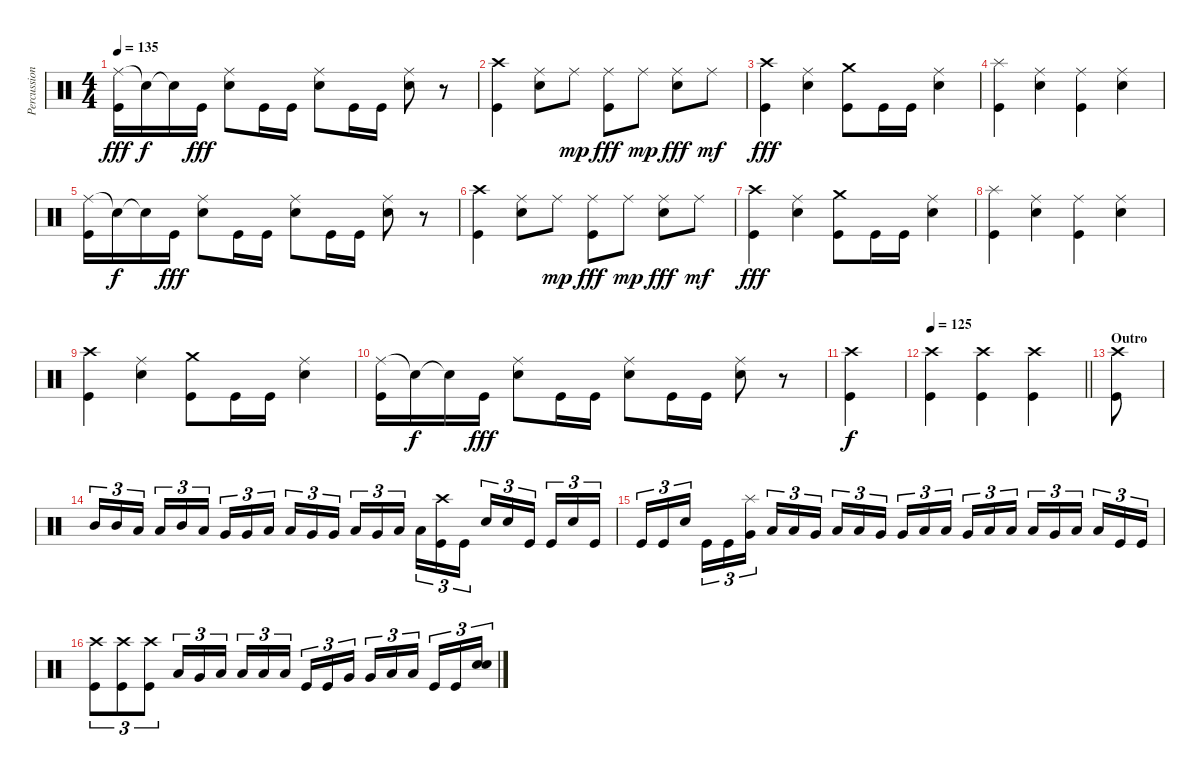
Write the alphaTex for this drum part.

\track ("Percussion/Nicko McBrain" "Percussion") {instrument percussion}
\staff {score}
\articulation defaults
\ts (4 4)
\tempo 135
\clef neutral
\ks c
("Ride (middle)" "Kick (hit)").16{dy fff} "Snare (hit)"{t}.16{dy f} "Snare (hit)"{t}.16 "Kick (hit)".16{dy fff} ("Ride (middle)" "Electric Snare (hit)").8 "Kick (hit)".16 "Kick (hit)".16 ("Ride (middle)" "Electric Snare (hit)").8 "Kick (hit)".16 "Kick (hit)".16 ("Ride (middle)" "Electric Snare (hit)").8 r.8 |
("Crash high (hit)" "Kick (hit)").4 ("Ride (middle)" "Electric Snare (hit)").8 "Ride (middle)".8{dy mp} ("Ride (middle)" "Kick (hit)").8{dy fff} "Ride (middle)".8{dy mp} ("Ride (middle)" "Electric Snare (hit)").8{dy fff} "Ride (middle)".8{dy mf} |
("Crash high (hit)" "Kick (hit)").4{dy fff} ("Ride (middle)" "Electric Snare (hit)").4 ("Crash medium (hit)" "Kick (hit)").8 "Kick (hit)".16 "Kick (hit)".16 ("Ride (middle)" "Electric Snare (hit)").4 |
("Splash (hit)" "Kick (hit)").4 ("Ride (middle)" "Electric Snare (hit)").4 ("Ride (middle)" "Kick (hit)").4 ("Ride (middle)" "Electric Snare (hit)").4 |
("Ride (middle)" "Kick (hit)").16 "Snare (hit)"{t}.16{dy f} "Snare (hit)"{t}.16 "Kick (hit)".16{dy fff} ("Ride (middle)" "Electric Snare (hit)").8 "Kick (hit)".16 "Kick (hit)".16 ("Ride (middle)" "Electric Snare (hit)").8 "Kick (hit)".16 "Kick (hit)".16 ("Ride (middle)" "Electric Snare (hit)").8 r.8 |
("Crash high (hit)" "Kick (hit)").4 ("Ride (middle)" "Electric Snare (hit)").8 "Ride (middle)".8{dy mp} ("Ride (middle)" "Kick (hit)").8{dy fff} "Ride (middle)".8{dy mp} ("Ride (middle)" "Electric Snare (hit)").8{dy fff} "Ride (middle)".8{dy mf} |
("Crash high (hit)" "Kick (hit)").4{dy fff} ("Ride (middle)" "Electric Snare (hit)").4 ("Crash medium (hit)" "Kick (hit)").8 "Kick (hit)".16 "Kick (hit)".16 ("Ride (middle)" "Electric Snare (hit)").4 |
("Splash (hit)" "Kick (hit)").4 ("Ride (middle)" "Electric Snare (hit)").4 ("Ride (middle)" "Kick (hit)").4 ("Ride (middle)" "Electric Snare (hit)").4 |
("Crash high (hit)" "Kick (hit)").4 ("Ride (middle)" "Electric Snare (hit)").4 ("Crash medium (hit)" "Kick (hit)").8 "Kick (hit)".16 "Kick (hit)".16 ("Ride (middle)" "Electric Snare (hit)").4 |
("Ride (middle)" "Kick (hit)").16 "Snare (hit)"{t}.16{dy f} "Snare (hit)"{t}.16 "Kick (hit)".16{dy fff} ("Ride (middle)" "Electric Snare (hit)").8 "Kick (hit)".16 "Kick (hit)".16 ("Ride (middle)" "Electric Snare (hit)").8 "Kick (hit)".16 "Kick (hit)".16 ("Ride (middle)" "Electric Snare (hit)").8 r.8 |
("Crash high (hit)" "Kick (hit)").4{dy f} |
\tempo 125
\barLineRight lightlight
("Crash high (hit)" "Kick (hit)").4 ("Crash high (hit)" "Kick (hit)").4 ("Crash high (hit)" "Kick (hit)").4 |
\section ("" "Outro")
("Crash high (hit)" "Kick (hit)").8 |
"Mid Tom (hit)".16{tu (3 2)} "Mid Tom (hit)".16{tu (3 2)} "Low Tom (hit)".16{tu (3 2) beam splitsecondary} "Low Tom (hit)".16{tu (3 2)} "Mid Tom (hit)".16{tu (3 2)} "Low Tom (hit)".16{tu (3 2)} "Very Low Tom (hit)".16{tu (3 2)} "Very Low Tom (hit)".16{tu (3 2)} "Low Tom (hit)".16{tu (3 2) beam splitsecondary} "Low Tom (hit)".16{tu (3 2)} "Very Low Tom (hit)".16{tu (3 2)} "Very Low Tom (hit)".16{tu (3 2)} "Low Tom (hit)".16{tu (3 2)} "Very Low Tom (hit)".16{tu (3 2)} "Low Floor Tom (hit)".16{tu (3 2) beam splitsecondary} "Low Floor Tom (hit)".16{tu (3 2)} ("Crash high (hit)" "Kick (hit)").16{tu (3 2)} "Kick (hit)".16{tu (3 2)} "Electric Snare (hit)".16{tu (3 2)} "Electric Snare (hit)".16{tu (3 2)} "Kick (hit)".16{tu (3 2) beam splitsecondary} "Kick (hit)".16{tu (3 2)} "Electric Snare (hit)".16{tu (3 2)} "Kick (hit)".16{tu (3 2)} |
"Kick (hit)".16{tu (3 2)} "Kick (hit)".16{tu (3 2)} "Electric Snare (hit)".16{tu (3 2) beam splitsecondary} "Kick (hit)".16{tu (3 2)} "Kick (hit)".16{tu (3 2)} ("Splash (hit)" "Very Low Tom (hit)").16{tu (3 2)} "Low Floor Tom (hit)".16{tu (3 2)} "Low Floor Tom (hit)".16{tu (3 2)} "Very Low Tom (hit)".16{tu (3 2) beam splitsecondary} "Low Floor Tom (hit)".16{tu (3 2)} "Low Floor Tom (hit)".16{tu (3 2)} "Very Low Tom (hit)".16{tu (3 2)} "Very Low Tom (hit)".16{tu (3 2)} "Low Floor Tom (hit)".16{tu (3 2)} "Low Floor Tom (hit)".16{tu (3 2) beam splitsecondary} "Very Low Tom (hit)".16{tu (3 2)} "Low Floor Tom (hit)".16{tu (3 2)} "Low Floor Tom (hit)".16{tu (3 2)} "Low Tom (hit)".16{tu (3 2)} "Very Low Tom (hit)".16{tu (3 2)} "Low Floor Tom (hit)".16{tu (3 2) beam splitsecondary} "Low Floor Tom (hit)".16{tu (3 2)} "Kick (hit)".16{tu (3 2)} "Kick (hit)".16{tu (3 2)} |
("Crash high (hit)" "Kick (hit)").8{tu (3 2)} ("Crash high (hit)" "Kick (hit)").8{tu (3 2)} ("Crash high (hit)" "Kick (hit)").8{tu (3 2)} "Low Tom (hit)".16{tu (3 2)} "Very Low Tom (hit)".16{tu (3 2)} "Low Floor Tom (hit)".16{tu (3 2) beam splitsecondary} "Low Floor Tom (hit)".16{tu (3 2)} "Low Floor Tom (hit)".16{tu (3 2)} "Low Floor Tom (hit)".16{tu (3 2)} "Kick (hit)".16{tu (3 2)} "Kick (hit)".16{tu (3 2)} "Very Low Tom (hit)".16{tu (3 2) beam splitsecondary} "Very Low Tom (hit)".16{tu (3 2)} "Low Floor Tom (hit)".16{tu (3 2)} "Low Floor Tom (hit)".16{tu (3 2)} "Kick (hit)".16{tu (3 2)} "Kick (hit)".16{tu (3 2)} ("Electric Snare (hit)" "Snare (hit) 2").16{tu (3 2)}
